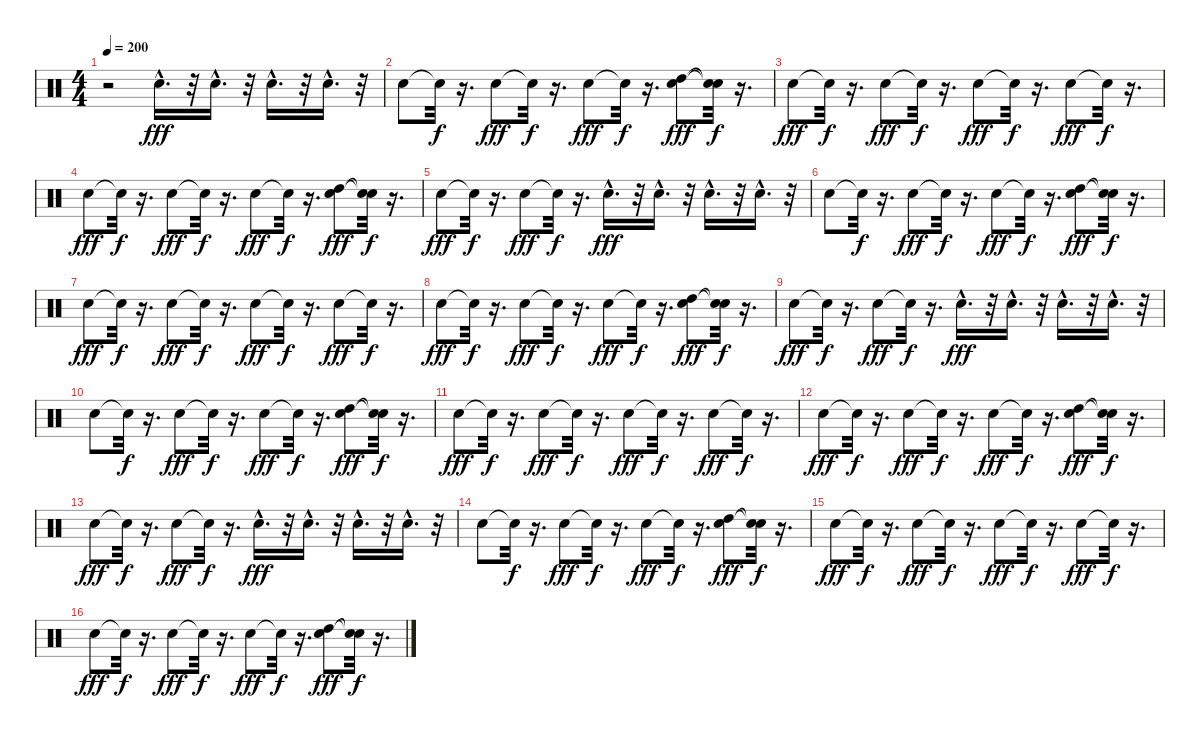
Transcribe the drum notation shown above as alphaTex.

\track "" {instrument percussion}
\staff {score}
\articulation defaults
\ts (4 4)
\tempo 200
\clef neutral
\ks c
r.2{dy fff} "Snare (hit) 2"{hac}.16{d} r.32 "Snare (hit) 2"{hac}.16{d} r.32 "Snare (hit) 2"{hac}.16{d} r.32 "Snare (hit) 2"{hac}.16{d} r.32 |
"Snare (hit) 2".8 "Snare (hit)"{t}.32{dy f} r.16{d} "Snare (hit) 2".8{dy fff} "Snare (hit)"{t}.32{dy f} r.16{d} "Snare (hit) 2".8{dy fff} "Snare (hit)"{t}.32{dy f} r.16{d} ("Snare (hit) 2" "High Tom (hit)").8{dy fff} ("Snare (hit)"{t} "Snare (hit)"{t}).32{dy f} r.16{d} |
"Snare (hit) 2".8{dy fff} "Snare (hit)"{t}.32{dy f} r.16{d} "Snare (hit) 2".8{dy fff} "Snare (hit)"{t}.32{dy f} r.16{d} "Snare (hit) 2".8{dy fff} "Snare (hit)"{t}.32{dy f} r.16{d} "Snare (hit) 2".8{dy fff} "Snare (hit)"{t}.32{dy f} r.16{d} |
"Snare (hit) 2".8{dy fff} "Snare (hit)"{t}.32{dy f} r.16{d} "Snare (hit) 2".8{dy fff} "Snare (hit)"{t}.32{dy f} r.16{d} "Snare (hit) 2".8{dy fff} "Snare (hit)"{t}.32{dy f} r.16{d} ("Snare (hit) 2" "High Tom (hit)").8{dy fff} ("Snare (hit)"{t} "Snare (hit)"{t}).32{dy f} r.16{d} |
"Snare (hit) 2".8{dy fff} "Snare (hit)"{t}.32{dy f} r.16{d} "Snare (hit) 2".8{dy fff} "Snare (hit)"{t}.32{dy f} r.16{d} "Snare (hit) 2"{hac}.16{d dy fff} r.32 "Snare (hit) 2"{hac}.16{d} r.32 "Snare (hit) 2"{hac}.16{d} r.32 "Snare (hit) 2"{hac}.16{d} r.32 |
"Snare (hit) 2".8 "Snare (hit)"{t}.32{dy f} r.16{d} "Snare (hit) 2".8{dy fff} "Snare (hit)"{t}.32{dy f} r.16{d} "Snare (hit) 2".8{dy fff} "Snare (hit)"{t}.32{dy f} r.16{d} ("Snare (hit) 2" "High Tom (hit)").8{dy fff} ("Snare (hit)"{t} "Snare (hit)"{t}).32{dy f} r.16{d} |
"Snare (hit) 2".8{dy fff} "Snare (hit)"{t}.32{dy f} r.16{d} "Snare (hit) 2".8{dy fff} "Snare (hit)"{t}.32{dy f} r.16{d} "Snare (hit) 2".8{dy fff} "Snare (hit)"{t}.32{dy f} r.16{d} "Snare (hit) 2".8{dy fff} "Snare (hit)"{t}.32{dy f} r.16{d} |
"Snare (hit) 2".8{dy fff} "Snare (hit)"{t}.32{dy f} r.16{d} "Snare (hit) 2".8{dy fff} "Snare (hit)"{t}.32{dy f} r.16{d} "Snare (hit) 2".8{dy fff} "Snare (hit)"{t}.32{dy f} r.16{d} ("Snare (hit) 2" "High Tom (hit)").8{dy fff} ("Snare (hit)"{t} "Snare (hit)"{t}).32{dy f} r.16{d} |
"Snare (hit) 2".8{dy fff} "Snare (hit)"{t}.32{dy f} r.16{d} "Snare (hit) 2".8{dy fff} "Snare (hit)"{t}.32{dy f} r.16{d} "Snare (hit) 2"{hac}.16{d dy fff} r.32 "Snare (hit) 2"{hac}.16{d} r.32 "Snare (hit) 2"{hac}.16{d} r.32 "Snare (hit) 2"{hac}.16{d} r.32 |
"Snare (hit) 2".8 "Snare (hit)"{t}.32{dy f} r.16{d} "Snare (hit) 2".8{dy fff} "Snare (hit)"{t}.32{dy f} r.16{d} "Snare (hit) 2".8{dy fff} "Snare (hit)"{t}.32{dy f} r.16{d} ("Snare (hit) 2" "High Tom (hit)").8{dy fff} ("Snare (hit)"{t} "Snare (hit)"{t}).32{dy f} r.16{d} |
"Snare (hit) 2".8{dy fff} "Snare (hit)"{t}.32{dy f} r.16{d} "Snare (hit) 2".8{dy fff} "Snare (hit)"{t}.32{dy f} r.16{d} "Snare (hit) 2".8{dy fff} "Snare (hit)"{t}.32{dy f} r.16{d} "Snare (hit) 2".8{dy fff} "Snare (hit)"{t}.32{dy f} r.16{d} |
"Snare (hit) 2".8{dy fff} "Snare (hit)"{t}.32{dy f} r.16{d} "Snare (hit) 2".8{dy fff} "Snare (hit)"{t}.32{dy f} r.16{d} "Snare (hit) 2".8{dy fff} "Snare (hit)"{t}.32{dy f} r.16{d} ("Snare (hit) 2" "High Tom (hit)").8{dy fff} ("Snare (hit)"{t} "Snare (hit)"{t}).32{dy f} r.16{d} |
"Snare (hit) 2".8{dy fff} "Snare (hit)"{t}.32{dy f} r.16{d} "Snare (hit) 2".8{dy fff} "Snare (hit)"{t}.32{dy f} r.16{d} "Snare (hit) 2"{hac}.16{d dy fff} r.32 "Snare (hit) 2"{hac}.16{d} r.32 "Snare (hit) 2"{hac}.16{d} r.32 "Snare (hit) 2"{hac}.16{d} r.32 |
"Snare (hit) 2".8 "Snare (hit)"{t}.32{dy f} r.16{d} "Snare (hit) 2".8{dy fff} "Snare (hit)"{t}.32{dy f} r.16{d} "Snare (hit) 2".8{dy fff} "Snare (hit)"{t}.32{dy f} r.16{d} ("Snare (hit) 2" "High Tom (hit)").8{dy fff} ("Snare (hit)"{t} "Snare (hit)"{t}).32{dy f} r.16{d} |
"Snare (hit) 2".8{dy fff} "Snare (hit)"{t}.32{dy f} r.16{d} "Snare (hit) 2".8{dy fff} "Snare (hit)"{t}.32{dy f} r.16{d} "Snare (hit) 2".8{dy fff} "Snare (hit)"{t}.32{dy f} r.16{d} "Snare (hit) 2".8{dy fff} "Snare (hit)"{t}.32{dy f} r.16{d} |
"Snare (hit) 2".8{dy fff} "Snare (hit)"{t}.32{dy f} r.16{d} "Snare (hit) 2".8{dy fff} "Snare (hit)"{t}.32{dy f} r.16{d} "Snare (hit) 2".8{dy fff} "Snare (hit)"{t}.32{dy f} r.16{d} ("Snare (hit) 2" "High Tom (hit)").8{dy fff} ("Snare (hit)"{t} "Snare (hit)"{t}).32{dy f} r.16{d}
